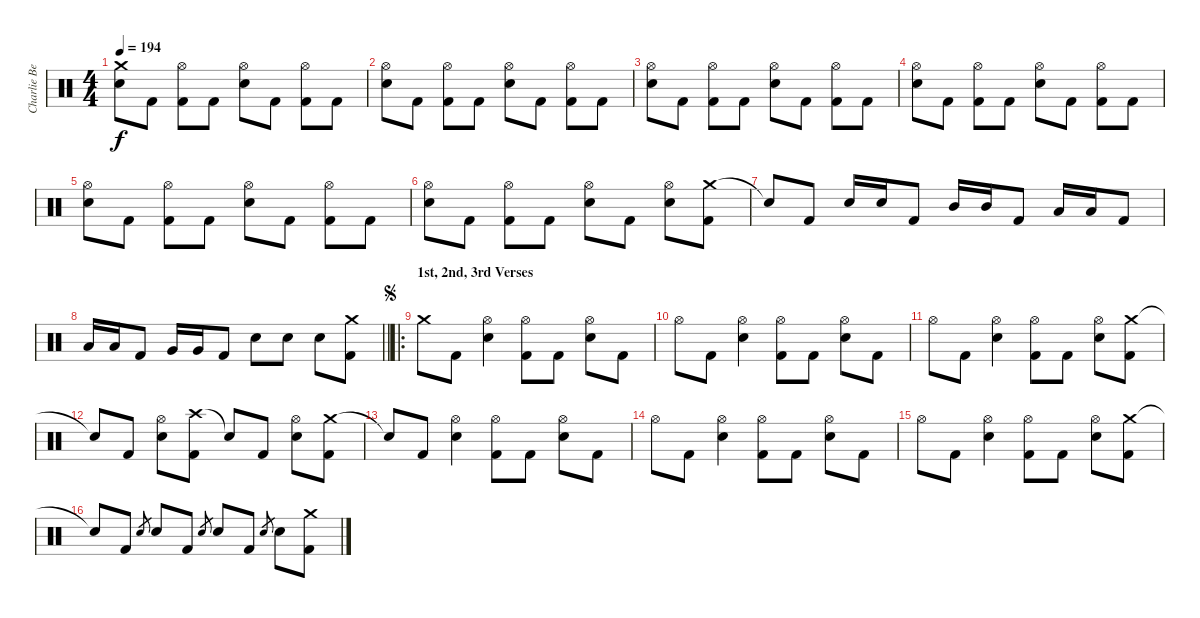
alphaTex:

\track ("Charlie Benate " "Charlie Be") {instrument percussion}
\staff {score}
\articulation defaults
\ts (4 4)
\tempo 194
\clef neutral
\ks c
("Crash medium (hit)" "Snare (hit) 2").8{dy f} "Kick (hit) 2".8 ("Hi-Hat (open)" "Kick (hit) 2").8 "Kick (hit) 2".8 ("Hi-Hat (open)" "Snare (hit) 2").8 "Kick (hit) 2".8 ("Hi-Hat (open)" "Kick (hit) 2").8 "Kick (hit) 2".8 |
("Hi-Hat (open)" "Snare (hit) 2").8 "Kick (hit) 2".8 ("Hi-Hat (open)" "Kick (hit) 2").8 "Kick (hit) 2".8 ("Hi-Hat (open)" "Snare (hit) 2").8 "Kick (hit) 2".8 ("Hi-Hat (open)" "Kick (hit) 2").8 "Kick (hit) 2".8 |
("Hi-Hat (open)" "Snare (hit) 2").8 "Kick (hit) 2".8 ("Hi-Hat (open)" "Kick (hit) 2").8 "Kick (hit) 2".8 ("Hi-Hat (open)" "Snare (hit) 2").8 "Kick (hit) 2".8 ("Hi-Hat (open)" "Kick (hit) 2").8 "Kick (hit) 2".8 |
("Hi-Hat (open)" "Snare (hit) 2").8 "Kick (hit) 2".8 ("Hi-Hat (open)" "Kick (hit) 2").8 "Kick (hit) 2".8 ("Hi-Hat (open)" "Snare (hit) 2").8 "Kick (hit) 2".8 ("Hi-Hat (open)" "Kick (hit) 2").8 "Kick (hit) 2".8 |
("Hi-Hat (open)" "Snare (hit) 2").8 "Kick (hit) 2".8 ("Hi-Hat (open)" "Kick (hit) 2").8 "Kick (hit) 2".8 ("Hi-Hat (open)" "Snare (hit) 2").8 "Kick (hit) 2".8 ("Hi-Hat (open)" "Kick (hit) 2").8 "Kick (hit) 2".8 |
("Hi-Hat (open)" "Snare (hit) 2").8 "Kick (hit) 2".8 ("Hi-Hat (open)" "Kick (hit) 2").8 "Kick (hit) 2".8 ("Hi-Hat (open)" "Snare (hit) 2").8 "Kick (hit) 2".8 ("Hi-Hat (open)" "Snare (hit) 2").8 ("Crash medium (hit)" "Kick (hit) 2").8 |
"Snare (hit)"{t}.8 "Kick (hit) 2".8 "Snare (hit) 2".16 "Snare (hit) 2".16 "Kick (hit) 2".8 "Mid Tom (hit)".16 "Mid Tom (hit)".16 "Kick (hit) 2".8 "Low Tom (hit)".16 "Low Tom (hit)".16 "Kick (hit) 2".8 |
\barLineRight lightlight "Low Tom (hit)".16 "Low Tom (hit)".16 "Kick (hit) 2".8 "Very Low Tom (hit)".16 "Very Low Tom (hit)".16 "Kick (hit) 2".8 "Snare (hit) 2".8 "Snare (hit) 2".8 "Snare (hit) 2".8
("Crash medium (hit)" "Kick (hit) 2").8 |
\ro
\section ("" "1st, 2nd, 3rd Verses")
\jump segno "Crash medium (hit)".8 "Kick (hit) 2".8
("Hi-Hat (open)" "Snare (hit) 2").4 ("Hi-Hat (open)" "Kick (hit) 2").8 "Kick (hit) 2".8 ("Hi-Hat (open)" "Snare (hit) 2").8 "Kick (hit) 2".8 |
"Hi-Hat (open)".8 "Kick (hit) 2".8 ("Hi-Hat (open)" "Snare (hit) 2").4 ("Hi-Hat (open)" "Kick (hit) 2").8 "Kick (hit) 2".8 ("Hi-Hat (open)" "Snare (hit) 2").8 "Kick (hit) 2".8 |
"Hi-Hat (open)".8 "Kick (hit) 2".8 ("Hi-Hat (open)" "Snare (hit) 2").4 ("Hi-Hat (open)" "Kick (hit) 2").8 "Kick (hit) 2".8 ("Hi-Hat (open)" "Snare (hit) 2").8 ("Crash medium (hit)" "Kick (hit) 2").8 |
"Snare (hit)"{t}.8 "Kick (hit) 2".8 ("Hi-Hat (open)" "Snare (hit) 2").8 ("Crash high (hit)" "Kick (hit) 2").8 "Snare (hit)"{t}.8 "Kick (hit) 2".8 ("Hi-Hat (open)" "Snare (hit) 2").8 ("Crash medium (hit)" "Kick (hit) 2").8 |
"Snare (hit)"{t}.8 "Kick (hit) 2".8 ("Hi-Hat (open)" "Snare (hit) 2").4 ("Hi-Hat (open)" "Kick (hit) 2").8 "Kick (hit) 2".8 ("Hi-Hat (open)" "Snare (hit) 2").8 "Kick (hit) 2".8 |
"Hi-Hat (open)".8 "Kick (hit) 2".8 ("Hi-Hat (open)" "Snare (hit) 2").4 ("Hi-Hat (open)" "Kick (hit) 2").8 "Kick (hit) 2".8 ("Hi-Hat (open)" "Snare (hit) 2").8 "Kick (hit) 2".8 |
"Hi-Hat (open)".8 "Kick (hit) 2".8 ("Hi-Hat (open)" "Snare (hit) 2").4 ("Hi-Hat (open)" "Kick (hit) 2").8 "Kick (hit) 2".8 ("Hi-Hat (open)" "Snare (hit) 2").8 ("Crash medium (hit)" "Kick (hit) 2").8 |
"Snare (hit)"{t}.8 "Kick (hit) 2".8 "Snare (hit) 2".8{gr} "Snare (hit) 2".8 "Kick (hit) 2".8 "Snare (hit) 2".8{gr} "Snare (hit) 2".8 "Kick (hit) 2".8 "Snare (hit) 2".8{gr} "Snare (hit) 2".8 ("Crash medium (hit)" "Kick (hit) 2").8
